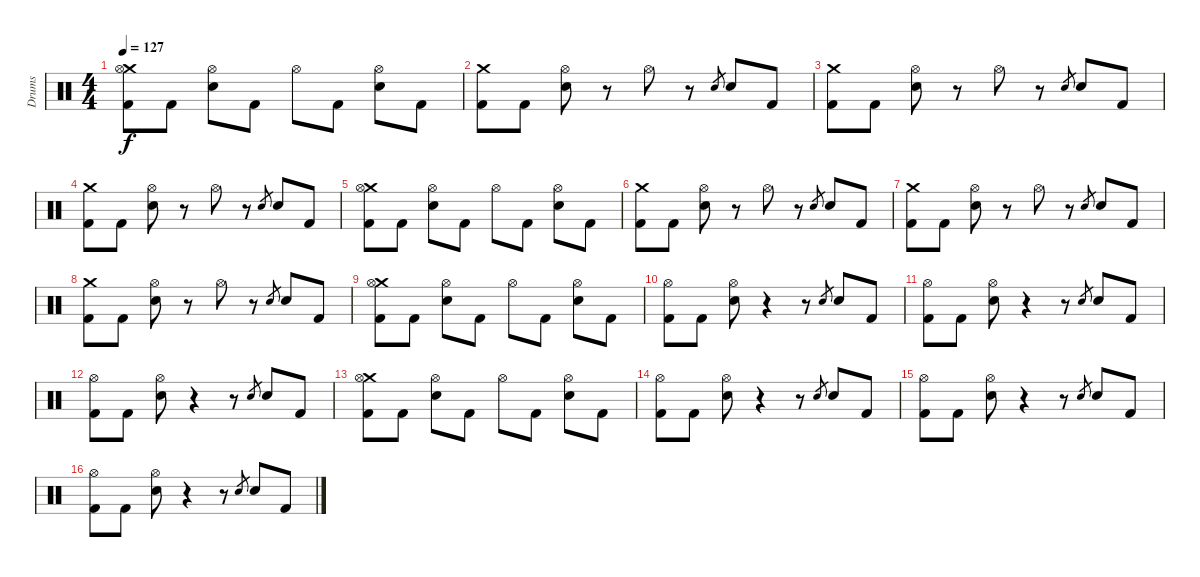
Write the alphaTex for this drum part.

\track ("Drums" "Drums") {instrument percussion}
\staff {score}
\articulation defaults
\ts (4 4)
\tempo 127
\clef neutral
\ks c
("Crash medium (hit)" "Hi-Hat (open)" "Kick (hit) 2").8{dy f} "Kick (hit) 2".8 ("Hi-Hat (open)" "Snare (hit) 2").8 "Kick (hit) 2".8 "Hi-Hat (open)".8 "Kick (hit) 2".8 ("Hi-Hat (open)" "Snare (hit) 2").8 "Kick (hit) 2".8 |
("Crash medium (hit)" "Kick (hit) 2").8 "Kick (hit) 2".8 ("Hi-Hat (open)" "Snare (hit) 2").8 r.8 "Hi-Hat (open)".8 r.8 "Snare (hit) 2".8{gr} "Snare (hit) 2".8 "Kick (hit) 2".8 |
("Crash medium (hit)" "Kick (hit) 2").8 "Kick (hit) 2".8 ("Hi-Hat (open)" "Snare (hit) 2").8 r.8 "Hi-Hat (open)".8 r.8 "Snare (hit) 2".8{gr} "Snare (hit) 2".8 "Kick (hit) 2".8 |
("Crash medium (hit)" "Kick (hit) 2").8 "Kick (hit) 2".8 ("Hi-Hat (open)" "Snare (hit) 2").8 r.8 "Hi-Hat (open)".8 r.8 "Snare (hit) 2".8{gr} "Snare (hit) 2".8 "Kick (hit) 2".8 |
("Crash medium (hit)" "Hi-Hat (open)" "Kick (hit) 2").8 "Kick (hit) 2".8 ("Hi-Hat (open)" "Snare (hit) 2").8 "Kick (hit) 2".8 "Hi-Hat (open)".8 "Kick (hit) 2".8 ("Hi-Hat (open)" "Snare (hit) 2").8 "Kick (hit) 2".8 |
("Crash medium (hit)" "Kick (hit) 2").8 "Kick (hit) 2".8 ("Hi-Hat (open)" "Snare (hit) 2").8 r.8 "Hi-Hat (open)".8 r.8 "Snare (hit) 2".8{gr} "Snare (hit) 2".8 "Kick (hit) 2".8 |
("Crash medium (hit)" "Kick (hit) 2").8 "Kick (hit) 2".8 ("Hi-Hat (open)" "Snare (hit) 2").8 r.8 "Hi-Hat (open)".8 r.8 "Snare (hit) 2".8{gr} "Snare (hit) 2".8 "Kick (hit) 2".8 |
("Crash medium (hit)" "Kick (hit) 2").8 "Kick (hit) 2".8 ("Hi-Hat (open)" "Snare (hit) 2").8 r.8 "Hi-Hat (open)".8 r.8 "Snare (hit) 2".8{gr} "Snare (hit) 2".8 "Kick (hit) 2".8 |
("Crash medium (hit)" "Hi-Hat (open)" "Kick (hit) 2").8 "Kick (hit) 2".8 ("Hi-Hat (open)" "Snare (hit) 2").8 "Kick (hit) 2".8 "Hi-Hat (open)".8 "Kick (hit) 2".8 ("Hi-Hat (open)" "Snare (hit) 2").8 "Kick (hit) 2".8 |
("Hi-Hat (open)" "Kick (hit) 2").8 "Kick (hit) 2".8 ("Hi-Hat (open)" "Snare (hit) 2").8 r.4 r.8 "Snare (hit) 2".8{gr} "Snare (hit) 2".8 "Kick (hit) 2".8 |
("Hi-Hat (open)" "Kick (hit) 2").8 "Kick (hit) 2".8 ("Hi-Hat (open)" "Snare (hit) 2").8 r.4 r.8 "Snare (hit) 2".8{gr} "Snare (hit) 2".8 "Kick (hit) 2".8 |
("Hi-Hat (open)" "Kick (hit) 2").8 "Kick (hit) 2".8 ("Hi-Hat (open)" "Snare (hit) 2").8 r.4 r.8 "Snare (hit) 2".8{gr} "Snare (hit) 2".8 "Kick (hit) 2".8 |
("Crash medium (hit)" "Hi-Hat (open)" "Kick (hit) 2").8 "Kick (hit) 2".8 ("Hi-Hat (open)" "Snare (hit) 2").8 "Kick (hit) 2".8 "Hi-Hat (open)".8 "Kick (hit) 2".8 ("Hi-Hat (open)" "Snare (hit) 2").8 "Kick (hit) 2".8 |
("Hi-Hat (open)" "Kick (hit) 2").8 "Kick (hit) 2".8 ("Hi-Hat (open)" "Snare (hit) 2").8 r.4 r.8 "Snare (hit) 2".8{gr} "Snare (hit) 2".8 "Kick (hit) 2".8 |
("Hi-Hat (open)" "Kick (hit) 2").8 "Kick (hit) 2".8 ("Hi-Hat (open)" "Snare (hit) 2").8 r.4 r.8 "Snare (hit) 2".8{gr} "Snare (hit) 2".8 "Kick (hit) 2".8 |
("Hi-Hat (open)" "Kick (hit) 2").8 "Kick (hit) 2".8 ("Hi-Hat (open)" "Snare (hit) 2").8 r.4 r.8 "Snare (hit) 2".8{gr} "Snare (hit) 2".8 "Kick (hit) 2".8
